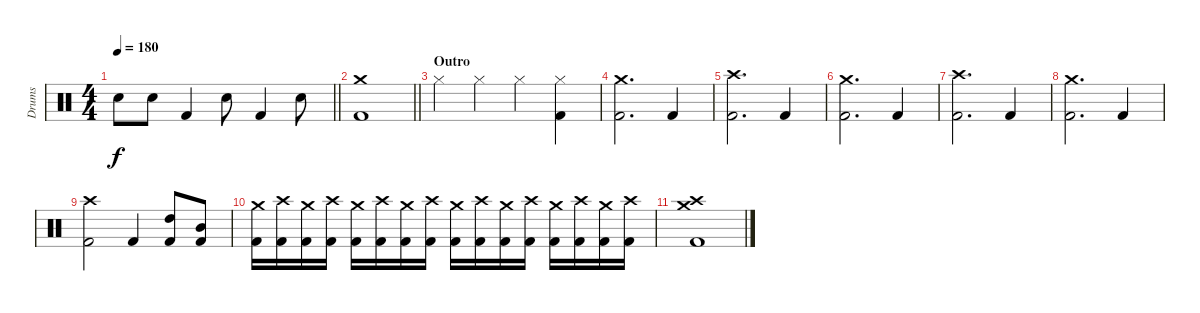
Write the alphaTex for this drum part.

\track ("Drums" "Drums") {instrument percussion}
\staff {score}
\articulation defaults
\ts (4 4)
\tempo 180
\clef neutral
\barLineRight lightlight
\ks c "Snare (hit) 2".8{dy f} "Snare (hit) 2".8 "Kick (hit) 2".4 "Snare (hit) 2".8 "Kick (hit) 2".4 "Snare (hit) 2".8
|
\barLineRight lightlight
("Kick (hit) 2" "Crash medium (hit)").1 |
\section ("" "Outro")
"Hi-Hat (closed)".4 "Hi-Hat (closed)".4 "Hi-Hat (closed)".4 ("Kick (hit) 2" "Hi-Hat (closed)").4 |
("Kick (hit) 2" "Crash medium (hit)").2{d} "Kick (hit) 2".4 |
("Kick (hit) 2" "Crash high (hit)").2{d} "Kick (hit) 2".4 |
("Kick (hit) 2" "Crash medium (hit)").2{d} "Kick (hit) 2".4 |
("Kick (hit) 2" "Crash high (hit)").2{d} "Kick (hit) 2".4 |
("Kick (hit) 2" "Crash medium (hit)").2{d} "Kick (hit) 2".4 |
("Kick (hit) 2" "Crash high (hit)").2 "Kick (hit) 2".4 ("Kick (hit) 2" "High Tom (hit)").8 ("Kick (hit) 2" "Mid Tom (hit)").8 |
("Kick (hit) 2" "Crash medium (hit)").16 ("Kick (hit) 2" "Crash high (hit)").16 ("Kick (hit) 2" "Crash medium (hit)").16 ("Kick (hit) 2" "Crash high (hit)").16 ("Kick (hit) 2" "Crash medium (hit)").16 ("Kick (hit) 2" "Crash high (hit)").16 ("Kick (hit) 2" "Crash medium (hit)").16 ("Kick (hit) 2" "Crash high (hit)").16 ("Kick (hit) 2" "Crash medium (hit)").16 ("Kick (hit) 2" "Crash high (hit)").16 ("Kick (hit) 2" "Crash medium (hit)").16 ("Kick (hit) 2" "Crash high (hit)").16 ("Kick (hit) 2" "Crash medium (hit)").16 ("Kick (hit) 2" "Crash high (hit)").16 ("Kick (hit) 2" "Crash medium (hit)").16 ("Kick (hit) 2" "Crash high (hit)").16 |
("Kick (hit) 2" "Crash high (hit)" "Crash medium (hit)").1
